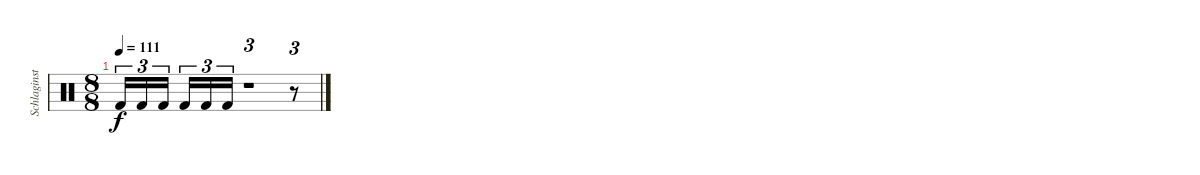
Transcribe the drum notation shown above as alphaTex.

\track ("Schlaginstrumente - Auswahl" "Schlaginst") {instrument percussion}
\staff {score}
\articulation defaults
\ts (8 8)
\tempo 111
\clef neutral
\ks c "Kick (hit) 2".16{tu (3 2) dy f} "Kick (hit) 2".16{tu (3 2)} "Kick (hit) 2".16{tu (3 2)} "Kick (hit) 2".16{tu (3 2)} "Kick (hit) 2".16{tu (3 2)} "Kick (hit) 2".16{tu (3 2)}
r.1{tu (3 2)} r.8{tu (3 2)}
